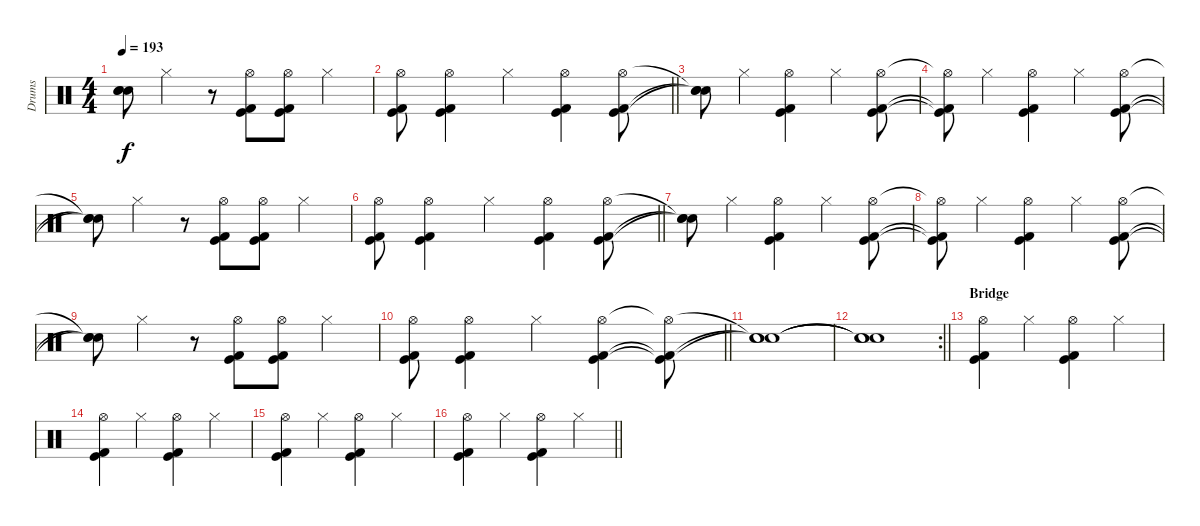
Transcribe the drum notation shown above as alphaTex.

\track ("Drums" "Drums") {instrument percussion}
\staff
\articulation defaults
\ts (4 4)
\tempo 193
\clef neutral
\ks c
("Snare (hit)"{t} "Snare (hit)"{t} "Snare (hit)"{t}).8{dy f} "Hi-Hat (closed)".4 r.8 ("Hi-Hat (open)" "Kick (hit)" "Kick (hit) 2").8 ("Hi-Hat (open)" "Kick (hit)" "Kick (hit) 2").8 "Hi-Hat (closed)".4 |
\barLineRight lightlight
("Hi-Hat (open)" "Kick (hit)" "Kick (hit) 2").8 ("Hi-Hat (open)" "Kick (hit)" "Kick (hit) 2").4 "Hi-Hat (closed)".4 ("Hi-Hat (open)" "Kick (hit)" "Kick (hit) 2").4 ("Hi-Hat (open)" "Kick (hit)" "Kick (hit) 2").8 |
("Snare (hit)"{t} "Snare (hit)"{t} "Snare (hit)"{t}).8 "Hi-Hat (closed)".4 ("Hi-Hat (open)" "Kick (hit)" "Kick (hit) 2").4 "Hi-Hat (closed)".4 ("Hi-Hat (open)" "Kick (hit)" "Kick (hit) 2").8 |
("Hi-Hat (open)"{t} "Kick (hit)"{t} "Kick (hit) 2"{t}).8 "Hi-Hat (closed)".4 ("Hi-Hat (open)" "Kick (hit)" "Kick (hit) 2").4 "Hi-Hat (closed)".4 ("Hi-Hat (open)" "Kick (hit)" "Kick (hit) 2").8 |
("Snare (hit)"{t} "Snare (hit)"{t} "Snare (hit)"{t}).8 "Hi-Hat (closed)".4 r.8 ("Hi-Hat (open)" "Kick (hit)" "Kick (hit) 2").8 ("Hi-Hat (open)" "Kick (hit)" "Kick (hit) 2").8 "Hi-Hat (closed)".4 |
\barLineRight lightlight
("Hi-Hat (open)" "Kick (hit)" "Kick (hit) 2").8 ("Hi-Hat (open)" "Kick (hit)" "Kick (hit) 2").4 "Hi-Hat (closed)".4 ("Hi-Hat (open)" "Kick (hit)" "Kick (hit) 2").4 ("Hi-Hat (open)" "Kick (hit)" "Kick (hit) 2").8 |
("Snare (hit)"{t} "Snare (hit)"{t} "Snare (hit)"{t}).8 "Hi-Hat (closed)".4 ("Hi-Hat (open)" "Kick (hit)" "Kick (hit) 2").4 "Hi-Hat (closed)".4 ("Hi-Hat (open)" "Kick (hit)" "Kick (hit) 2").8 |
("Hi-Hat (open)"{t} "Kick (hit)"{t} "Kick (hit) 2"{t}).8 "Hi-Hat (closed)".4 ("Hi-Hat (open)" "Kick (hit)" "Kick (hit) 2").4 "Hi-Hat (closed)".4 ("Hi-Hat (open)" "Kick (hit)" "Kick (hit) 2").8 |
("Snare (hit)"{t} "Snare (hit)"{t} "Snare (hit)"{t}).8 "Hi-Hat (closed)".4 r.8 ("Hi-Hat (open)" "Kick (hit)" "Kick (hit) 2").8 ("Hi-Hat (open)" "Kick (hit)" "Kick (hit) 2").8 "Hi-Hat (closed)".4 |
\barLineRight lightlight
("Hi-Hat (open)" "Kick (hit)" "Kick (hit) 2").8 ("Hi-Hat (open)" "Kick (hit)" "Kick (hit) 2").4 "Hi-Hat (closed)".4 ("Hi-Hat (open)" "Kick (hit)" "Kick (hit) 2").4 ("Hi-Hat (open)"{t} "Kick (hit)"{t} "Kick (hit) 2"{t}).8 |
("Snare (hit)"{t} "Snare (hit)"{t} "Snare (hit)"{t}).1 |
\rc 2
\barLineRight lightlight
("Snare (hit)"{t} "Snare (hit)"{t} "Snare (hit)"{t}).1 |
\section ("" "Bridge")
("Hi-Hat (open)" "Kick (hit)" "Kick (hit) 2").4 "Hi-Hat (closed)".4 ("Hi-Hat (open)" "Kick (hit)" "Kick (hit) 2").4 "Hi-Hat (closed)".4 |
("Hi-Hat (open)" "Kick (hit)" "Kick (hit) 2").4 "Hi-Hat (closed)".4 ("Hi-Hat (open)" "Kick (hit)" "Kick (hit) 2").4 "Hi-Hat (closed)".4 |
("Hi-Hat (open)" "Kick (hit)" "Kick (hit) 2").4 "Hi-Hat (closed)".4 ("Hi-Hat (open)" "Kick (hit)" "Kick (hit) 2").4 "Hi-Hat (closed)".4 |
\barLineRight lightlight
("Hi-Hat (open)" "Kick (hit)" "Kick (hit) 2").4 "Hi-Hat (closed)".4 ("Hi-Hat (open)" "Kick (hit)" "Kick (hit) 2").4 "Hi-Hat (closed)".4
